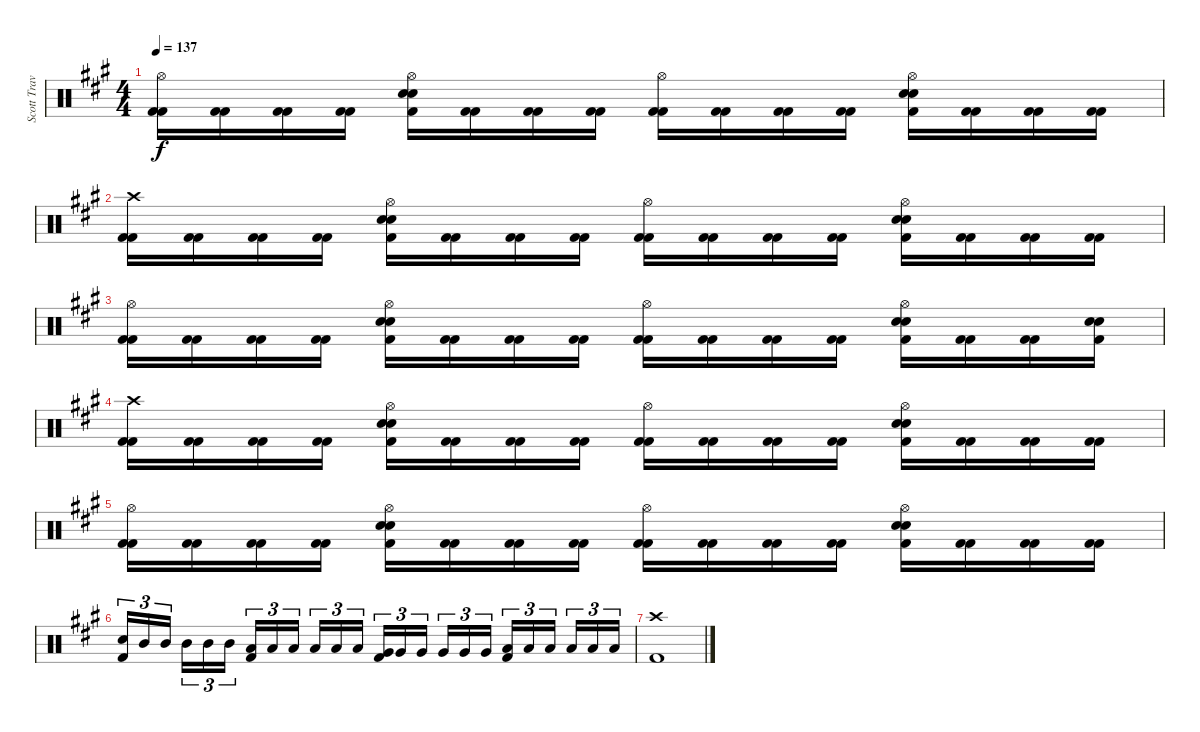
\track ("Scott Travis" "Scott Trav") {instrument percussion}
\staff {score}
\articulation defaults
\ts (4 4)
\tempo 137
\clef neutral
\ks f#minor
("Hi-Hat (open)" "Kick (hit) 2" "Kick (hit) 2").16{dy f} ("Kick (hit) 2" "Kick (hit) 2").16 ("Kick (hit) 2" "Kick (hit) 2").16 ("Kick (hit) 2" "Kick (hit) 2").16 ("Hi-Hat (open)" "Snare (hit) 2" "Snare (hit) 2" "Kick (hit) 2").16 ("Kick (hit) 2" "Kick (hit) 2").16 ("Kick (hit) 2" "Kick (hit) 2").16 ("Kick (hit) 2" "Kick (hit) 2").16 ("Hi-Hat (open)" "Kick (hit) 2" "Kick (hit) 2").16 ("Kick (hit) 2" "Kick (hit) 2").16 ("Kick (hit) 2" "Kick (hit) 2").16 ("Kick (hit) 2" "Kick (hit) 2").16 ("Hi-Hat (open)" "Snare (hit) 2" "Snare (hit) 2" "Kick (hit) 2").16 ("Kick (hit) 2" "Kick (hit) 2").16 ("Kick (hit) 2" "Kick (hit) 2").16 ("Kick (hit) 2" "Kick (hit) 2").16 |
("Crash high (hit)" "Kick (hit) 2" "Kick (hit) 2").16 ("Kick (hit) 2" "Kick (hit) 2").16 ("Kick (hit) 2" "Kick (hit) 2").16 ("Kick (hit) 2" "Kick (hit) 2").16 ("Hi-Hat (open)" "Snare (hit) 2" "Snare (hit) 2" "Kick (hit) 2").16 ("Kick (hit) 2" "Kick (hit) 2").16 ("Kick (hit) 2" "Kick (hit) 2").16 ("Kick (hit) 2" "Kick (hit) 2").16 ("Hi-Hat (open)" "Kick (hit) 2" "Kick (hit) 2").16 ("Kick (hit) 2" "Kick (hit) 2").16 ("Kick (hit) 2" "Kick (hit) 2").16 ("Kick (hit) 2" "Kick (hit) 2").16 ("Hi-Hat (open)" "Snare (hit) 2" "Snare (hit) 2" "Kick (hit) 2").16 ("Kick (hit) 2" "Kick (hit) 2").16 ("Kick (hit) 2" "Kick (hit) 2").16 ("Kick (hit) 2" "Kick (hit) 2").16 |
("Hi-Hat (open)" "Kick (hit) 2" "Kick (hit) 2").16 ("Kick (hit) 2" "Kick (hit) 2").16 ("Kick (hit) 2" "Kick (hit) 2").16 ("Kick (hit) 2" "Kick (hit) 2").16 ("Hi-Hat (open)" "Snare (hit) 2" "Snare (hit) 2" "Kick (hit) 2").16 ("Kick (hit) 2" "Kick (hit) 2").16 ("Kick (hit) 2" "Kick (hit) 2").16 ("Kick (hit) 2" "Kick (hit) 2").16 ("Hi-Hat (open)" "Kick (hit) 2" "Kick (hit) 2").16 ("Kick (hit) 2" "Kick (hit) 2").16 ("Kick (hit) 2" "Kick (hit) 2").16 ("Kick (hit) 2" "Kick (hit) 2").16 ("Hi-Hat (open)" "Snare (hit) 2" "Snare (hit) 2" "Kick (hit) 2").16 ("Kick (hit) 2" "Kick (hit) 2").16 ("Kick (hit) 2" "Kick (hit) 2").16 ("Snare (hit) 2" "Snare (hit) 2" "Kick (hit) 2").16 |
("Crash high (hit)" "Kick (hit) 2" "Kick (hit) 2").16 ("Kick (hit) 2" "Kick (hit) 2").16 ("Kick (hit) 2" "Kick (hit) 2").16 ("Kick (hit) 2" "Kick (hit) 2").16 ("Hi-Hat (open)" "Snare (hit) 2" "Snare (hit) 2" "Kick (hit) 2").16 ("Kick (hit) 2" "Kick (hit) 2").16 ("Kick (hit) 2" "Kick (hit) 2").16 ("Kick (hit) 2" "Kick (hit) 2").16 ("Hi-Hat (open)" "Kick (hit) 2" "Kick (hit) 2").16 ("Kick (hit) 2" "Kick (hit) 2").16 ("Kick (hit) 2" "Kick (hit) 2").16 ("Kick (hit) 2" "Kick (hit) 2").16 ("Hi-Hat (open)" "Snare (hit) 2" "Snare (hit) 2" "Kick (hit) 2").16 ("Kick (hit) 2" "Kick (hit) 2").16 ("Kick (hit) 2" "Kick (hit) 2").16 ("Kick (hit) 2" "Kick (hit) 2").16 |
("Hi-Hat (open)" "Kick (hit) 2" "Kick (hit) 2").16 ("Kick (hit) 2" "Kick (hit) 2").16 ("Kick (hit) 2" "Kick (hit) 2").16 ("Kick (hit) 2" "Kick (hit) 2").16 ("Hi-Hat (open)" "Snare (hit) 2" "Snare (hit) 2" "Kick (hit) 2").16 ("Kick (hit) 2" "Kick (hit) 2").16 ("Kick (hit) 2" "Kick (hit) 2").16 ("Kick (hit) 2" "Kick (hit) 2").16 ("Hi-Hat (open)" "Kick (hit) 2" "Kick (hit) 2").16 ("Kick (hit) 2" "Kick (hit) 2").16 ("Kick (hit) 2" "Kick (hit) 2").16 ("Kick (hit) 2" "Kick (hit) 2").16 ("Hi-Hat (open)" "Snare (hit) 2" "Snare (hit) 2" "Kick (hit) 2").16 ("Kick (hit) 2" "Kick (hit) 2").16 ("Kick (hit) 2" "Kick (hit) 2").16 ("Kick (hit) 2" "Kick (hit) 2").16 |
("Snare (hit) 2" "Kick (hit) 2").16{tu (3 2)} "Mid Tom (hit)".16{tu (3 2)} "Mid Tom (hit)".16{tu (3 2)} "Mid Tom (hit)".16{tu (3 2)} "Mid Tom (hit)".16{tu (3 2)} "Mid Tom (hit)".16{tu (3 2)} ("Low Tom (hit)" "Kick (hit) 2").16{tu (3 2)} "Low Tom (hit)".16{tu (3 2)} "Low Tom (hit)".16{tu (3 2)} "Low Tom (hit)".16{tu (3 2)} "Low Tom (hit)".16{tu (3 2)} "Low Tom (hit)".16{tu (3 2)} ("Very Low Tom (hit)" "Kick (hit) 2").16{tu (3 2)} "Very Low Tom (hit)".16{tu (3 2)} "Very Low Tom (hit)".16{tu (3 2)} "Very Low Tom (hit)".16{tu (3 2)} "Very Low Tom (hit)".16{tu (3 2)} "Very Low Tom (hit)".16{tu (3 2)} ("Low Floor Tom (hit)" "Kick (hit) 2").16{tu (3 2)} "Low Floor Tom (hit)".16{tu (3 2)} "Low Floor Tom (hit)".16{tu (3 2)} "Low Floor Tom (hit)".16{tu (3 2)} "Low Floor Tom (hit)".16{tu (3 2)} "Low Floor Tom (hit)".16{tu (3 2)} |
("Crash high (hit)" "Kick (hit) 2").1
